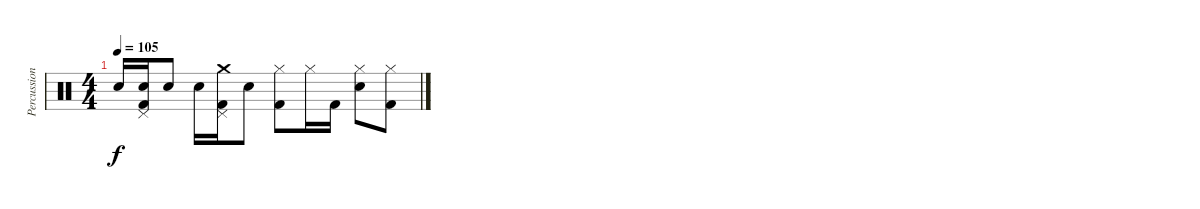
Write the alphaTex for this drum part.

\track ("Percussion" "Percussion") {instrument percussion}
\staff {score}
\articulation defaults
\ts (4 4)
\tempo 105
\clef neutral
\ks c "Snare (hit) 2".16{dy f}
("Pedal Hi-Hat (hit)" "Snare (hit) 2" "Kick (hit) 2").16 "Snare (hit) 2".8 "Snare (hit) 2".16 ("Pedal Hi-Hat (hit)" "Crash medium (hit)" "Kick (hit) 2").16 "Snare (hit) 2".8 ("Hi-Hat (closed)" "Kick (hit) 2").8 "Hi-Hat (closed)".16 "Kick (hit) 2".16 ("Hi-Hat (closed)" "Snare (hit) 2").8 ("Hi-Hat (closed)" "Kick (hit) 2").8
